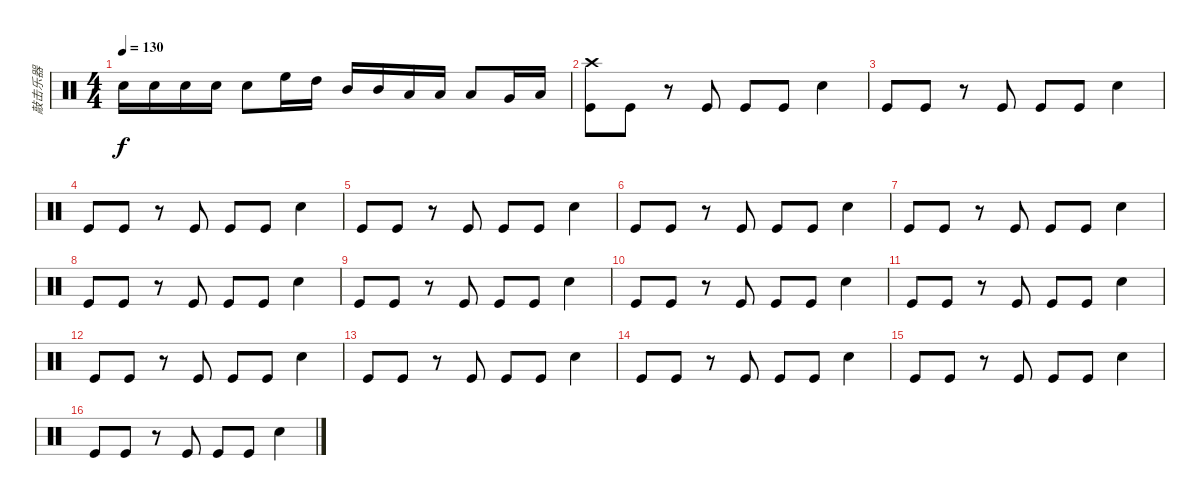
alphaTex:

\track ("敲击乐器" "敲击乐器") {instrument percussion}
\staff {score}
\articulation defaults
\ts (4 4)
\tempo 130
\clef neutral
\ks c "Snare (hit) 2".16{dy f} "Snare (hit) 2".16 "Snare (hit) 2".16 "Snare (hit) 2".16 "Snare (hit) 2".8 "High Floor Tom (hit)".16 "High Tom (hit)".16 "Mid Tom (hit)".16 "Mid Tom (hit)".16 "Low Tom (hit)".16 "Low Tom (hit)".16 "Low Tom (hit)".8 "Very Low Tom (hit)".16 "Low Floor Tom (hit)".16
|
("Crash high (hit)" "Kick (hit)").8 "Kick (hit)".8 r.8 "Kick (hit)".8 "Kick (hit)".8 "Kick (hit)".8 "Snare (hit) 2".4 |
"Kick (hit)".8 "Kick (hit)".8 r.8 "Kick (hit)".8 "Kick (hit)".8 "Kick (hit)".8 "Snare (hit) 2".4 |
"Kick (hit)".8 "Kick (hit)".8 r.8 "Kick (hit)".8 "Kick (hit)".8 "Kick (hit)".8 "Snare (hit) 2".4 |
"Kick (hit)".8 "Kick (hit)".8 r.8 "Kick (hit)".8 "Kick (hit)".8 "Kick (hit)".8 "Snare (hit) 2".4 |
"Kick (hit)".8 "Kick (hit)".8 r.8 "Kick (hit)".8 "Kick (hit)".8 "Kick (hit)".8 "Snare (hit) 2".4 |
"Kick (hit)".8 "Kick (hit)".8 r.8 "Kick (hit)".8 "Kick (hit)".8 "Kick (hit)".8 "Snare (hit) 2".4 |
"Kick (hit)".8 "Kick (hit)".8 r.8 "Kick (hit)".8 "Kick (hit)".8 "Kick (hit)".8 "Snare (hit) 2".4 |
"Kick (hit)".8 "Kick (hit)".8 r.8 "Kick (hit)".8 "Kick (hit)".8 "Kick (hit)".8 "Snare (hit) 2".4 |
"Kick (hit)".8 "Kick (hit)".8 r.8 "Kick (hit)".8 "Kick (hit)".8 "Kick (hit)".8 "Snare (hit) 2".4 |
"Kick (hit)".8 "Kick (hit)".8 r.8 "Kick (hit)".8 "Kick (hit)".8 "Kick (hit)".8 "Snare (hit) 2".4 |
"Kick (hit)".8 "Kick (hit)".8 r.8 "Kick (hit)".8 "Kick (hit)".8 "Kick (hit)".8 "Snare (hit) 2".4 |
"Kick (hit)".8 "Kick (hit)".8 r.8 "Kick (hit)".8 "Kick (hit)".8 "Kick (hit)".8 "Snare (hit) 2".4 |
"Kick (hit)".8 "Kick (hit)".8 r.8 "Kick (hit)".8 "Kick (hit)".8 "Kick (hit)".8 "Snare (hit) 2".4 |
"Kick (hit)".8 "Kick (hit)".8 r.8 "Kick (hit)".8 "Kick (hit)".8 "Kick (hit)".8 "Snare (hit) 2".4 |
"Kick (hit)".8 "Kick (hit)".8 r.8 "Kick (hit)".8 "Kick (hit)".8 "Kick (hit)".8 "Snare (hit) 2".4
